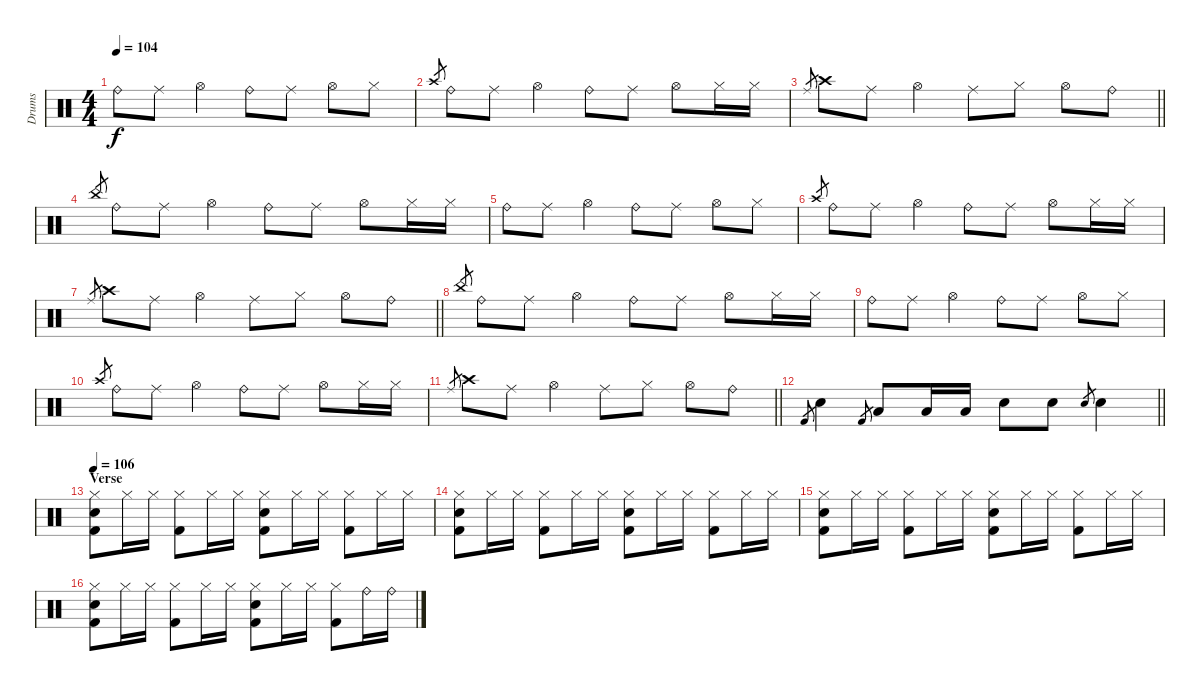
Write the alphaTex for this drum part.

\track ("Drums" "Drums") {instrument percussion}
\staff {score}
\articulation defaults
\ts (4 4)
\tempo 104
\clef neutral
\ks c "Ride (bell)".8{dy f} "Ride (middle)".8 "Hi-Hat (open)".4 "Ride (bell)".8 "Ride (middle)".8 "Hi-Hat (open)".8 "Hi-Hat (closed)".8
|
"Crash high (hit)".8{gr} "Ride (bell)".8 "Ride (middle)".8 "Hi-Hat (open)".4 "Ride (bell)".8 "Ride (middle)".8 "Hi-Hat (open)".8 "Hi-Hat (closed)".16 "Hi-Hat (closed)".16 |
\barLineRight lightlight "Ride (middle)".8{gr} "Crash high (hit)".8 "Ride (middle)".8 "Hi-Hat (open)".4 "Ride (middle)".8 "Hi-Hat (closed)".8 "Hi-Hat (open)".8 "Ride (bell)".8
|
"China (hit)".8{gr} "Ride (bell)".8 "Ride (middle)".8 "Hi-Hat (open)".4 "Ride (bell)".8 "Ride (middle)".8 "Hi-Hat (open)".8 "Hi-Hat (closed)".16 "Hi-Hat (closed)".16 |
"Ride (bell)".8 "Ride (middle)".8 "Hi-Hat (open)".4 "Ride (bell)".8 "Ride (middle)".8 "Hi-Hat (open)".8 "Hi-Hat (closed)".8 |
"Crash high (hit)".8{gr} "Ride (bell)".8 "Ride (middle)".8 "Hi-Hat (open)".4 "Ride (bell)".8 "Ride (middle)".8 "Hi-Hat (open)".8 "Hi-Hat (closed)".16 "Hi-Hat (closed)".16 |
\barLineRight lightlight "Ride (middle)".8{gr} "Crash high (hit)".8 "Ride (middle)".8 "Hi-Hat (open)".4 "Ride (middle)".8 "Hi-Hat (closed)".8 "Hi-Hat (open)".8 "Ride (bell)".8
|
"China (hit)".8{gr} "Ride (bell)".8 "Ride (middle)".8 "Hi-Hat (open)".4 "Ride (bell)".8 "Ride (middle)".8 "Hi-Hat (open)".8 "Hi-Hat (closed)".16 "Hi-Hat (closed)".16 |
"Ride (bell)".8 "Ride (middle)".8 "Hi-Hat (open)".4 "Ride (bell)".8 "Ride (middle)".8 "Hi-Hat (open)".8 "Hi-Hat (closed)".8 |
"Crash high (hit)".8{gr} "Ride (bell)".8 "Ride (middle)".8 "Hi-Hat (open)".4 "Ride (bell)".8 "Ride (middle)".8 "Hi-Hat (open)".8 "Hi-Hat (closed)".16 "Hi-Hat (closed)".16 |
\barLineRight lightlight "Ride (middle)".8{gr} "Crash high (hit)".8 "Ride (middle)".8 "Hi-Hat (open)".4 "Ride (middle)".8 "Hi-Hat (closed)".8 "Hi-Hat (open)".8 "Ride (bell)".8
|
\barLineRight lightlight "Kick (hit) 2".8{gr} "Snare (hit) 2".4 "Kick (hit) 2".8{gr} "Low Floor Tom (hit)".8 "Low Floor Tom (hit)".16 "Low Floor Tom (hit)".16 "Snare (hit) 2".8 "Snare (hit) 2".8 "Snare (hit) 2".8{gr} "Snare (hit) 2".4
|
\section ("" "Verse")
\tempo 106
("Hi-Hat (closed)" "Snare (hit) 2" "Kick (hit) 2").8 "Hi-Hat (closed)".16 "Hi-Hat (closed)".16 ("Hi-Hat (closed)" "Kick (hit) 2").8 "Hi-Hat (closed)".16 "Hi-Hat (closed)".16 ("Hi-Hat (closed)" "Snare (hit) 2" "Kick (hit) 2").8 "Hi-Hat (closed)".16 "Hi-Hat (closed)".16 ("Hi-Hat (closed)" "Kick (hit) 2").8 "Hi-Hat (closed)".16 "Hi-Hat (closed)".16 |
("Hi-Hat (closed)" "Snare (hit) 2" "Kick (hit) 2").8 "Hi-Hat (closed)".16 "Hi-Hat (closed)".16 ("Hi-Hat (closed)" "Kick (hit) 2").8 "Hi-Hat (closed)".16 "Hi-Hat (closed)".16 ("Hi-Hat (closed)" "Snare (hit) 2" "Kick (hit) 2").8 "Hi-Hat (closed)".16 "Hi-Hat (closed)".16 ("Hi-Hat (closed)" "Kick (hit) 2").8 "Hi-Hat (closed)".16 "Hi-Hat (closed)".16 |
("Hi-Hat (closed)" "Snare (hit) 2" "Kick (hit) 2").8 "Hi-Hat (closed)".16 "Hi-Hat (closed)".16 ("Hi-Hat (closed)" "Kick (hit) 2").8 "Hi-Hat (closed)".16 "Hi-Hat (closed)".16 ("Hi-Hat (closed)" "Snare (hit) 2" "Kick (hit) 2").8 "Hi-Hat (closed)".16 "Hi-Hat (closed)".16 ("Hi-Hat (closed)" "Kick (hit) 2").8 "Hi-Hat (closed)".16 "Hi-Hat (closed)".16 |
("Hi-Hat (closed)" "Snare (hit) 2" "Kick (hit) 2").8 "Hi-Hat (closed)".16 "Hi-Hat (closed)".16 ("Hi-Hat (closed)" "Kick (hit) 2").8 "Hi-Hat (closed)".16 "Hi-Hat (closed)".16 ("Hi-Hat (closed)" "Snare (hit) 2" "Kick (hit) 2").8 "Hi-Hat (closed)".16 "Hi-Hat (closed)".16 ("Hi-Hat (closed)" "Kick (hit) 2").8 "Ride (bell)".16 "Ride (bell)".16
